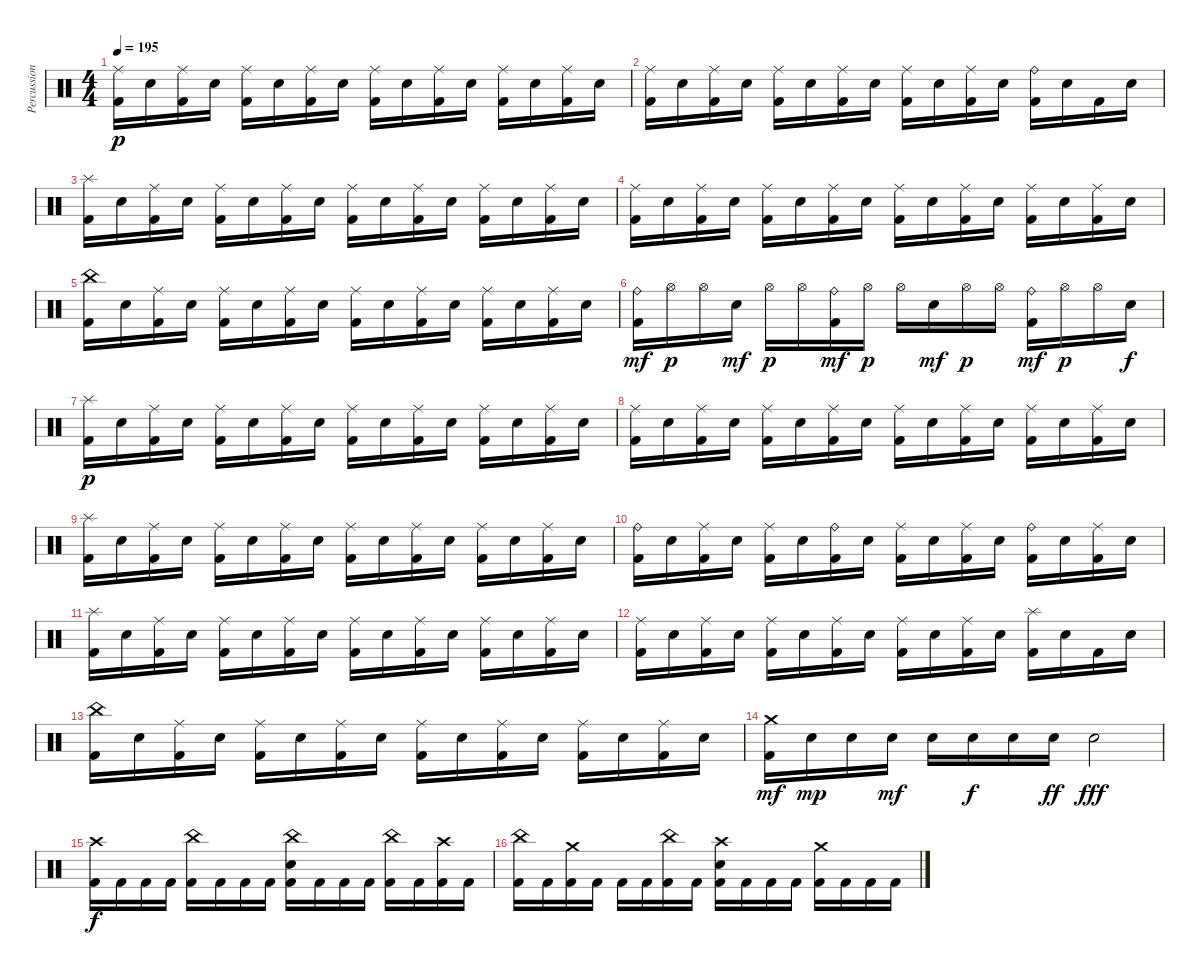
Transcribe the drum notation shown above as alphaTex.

\track ("Percussion" "Percussion") {instrument percussion}
\staff {score}
\articulation defaults
\ts (4 4)
\tempo 195
\clef neutral
\ks c
("Ride (middle)" "Kick (hit) 2").16{dy p} "Snare (hit) 2".16 ("Ride (middle)" "Kick (hit) 2").16 "Snare (hit) 2".16 ("Ride (middle)" "Kick (hit) 2").16 "Snare (hit) 2".16 ("Ride (middle)" "Kick (hit) 2").16 "Snare (hit) 2".16 ("Ride (middle)" "Kick (hit) 2").16 "Snare (hit) 2".16 ("Ride (middle)" "Kick (hit) 2").16 "Snare (hit) 2".16 ("Ride (middle)" "Kick (hit) 2").16 "Snare (hit) 2".16 ("Ride (middle)" "Kick (hit) 2").16 "Snare (hit) 2".16 |
("Ride (middle)" "Kick (hit) 2").16 "Snare (hit) 2".16 ("Ride (middle)" "Kick (hit) 2").16 "Snare (hit) 2".16 ("Ride (middle)" "Kick (hit) 2").16 "Snare (hit) 2".16 ("Ride (middle)" "Kick (hit) 2").16 "Snare (hit) 2".16 ("Ride (middle)" "Kick (hit) 2").16 "Snare (hit) 2".16 ("Ride (middle)" "Kick (hit) 2").16 "Snare (hit) 2".16 ("Ride (bell)" "Kick (hit) 2").16 "Snare (hit) 2".16 "Kick (hit) 2".16 "Snare (hit) 2".16 |
("Splash (hit)" "Kick (hit) 2").16 "Snare (hit) 2".16 ("Ride (middle)" "Kick (hit) 2").16 "Snare (hit) 2".16 ("Ride (middle)" "Kick (hit) 2").16 "Snare (hit) 2".16 ("Ride (middle)" "Kick (hit) 2").16 "Snare (hit) 2".16 ("Ride (middle)" "Kick (hit) 2").16 "Snare (hit) 2".16 ("Ride (middle)" "Kick (hit) 2").16 "Snare (hit) 2".16 ("Ride (middle)" "Kick (hit) 2").16 "Snare (hit) 2".16 ("Ride (middle)" "Kick (hit) 2").16 "Snare (hit) 2".16 |
("Ride (middle)" "Kick (hit) 2").16 "Snare (hit) 2".16 ("Ride (middle)" "Kick (hit) 2").16 "Snare (hit) 2".16 ("Ride (middle)" "Kick (hit) 2").16 "Snare (hit) 2".16 ("Ride (middle)" "Kick (hit) 2").16 "Snare (hit) 2".16 ("Ride (middle)" "Kick (hit) 2").16 "Snare (hit) 2".16 ("Ride (middle)" "Kick (hit) 2").16 "Snare (hit) 2".16 ("Ride (middle)" "Kick (hit) 2").16 "Snare (hit) 2".16 ("Ride (middle)" "Kick (hit) 2").16 "Snare (hit) 2".16 |
("China (hit)" "Kick (hit) 2").16 "Snare (hit) 2".16 ("Ride (middle)" "Kick (hit) 2").16 "Snare (hit) 2".16 ("Ride (middle)" "Kick (hit) 2").16 "Snare (hit) 2".16 ("Ride (middle)" "Kick (hit) 2").16 "Snare (hit) 2".16 ("Ride (middle)" "Kick (hit) 2").16 "Snare (hit) 2".16 ("Ride (middle)" "Kick (hit) 2").16 "Snare (hit) 2".16 ("Ride (middle)" "Kick (hit) 2").16 "Snare (hit) 2".16 ("Ride (middle)" "Kick (hit) 2").16 "Snare (hit) 2".16 |
("Ride (bell)" "Kick (hit) 2").16{dy mf} "Hi-Hat (open)".16{dy p} "Hi-Hat (open)".16 "Snare (hit) 2".16{dy mf} "Hi-Hat (open)".16{dy p} "Hi-Hat (open)".16 ("Ride (bell)" "Kick (hit) 2").16{dy mf} "Hi-Hat (open)".16{dy p} "Hi-Hat (open)".16 "Snare (hit) 2".16{dy mf} "Hi-Hat (open)".16{dy p} "Hi-Hat (open)".16 ("Ride (bell)" "Kick (hit) 2").16{dy mf} "Hi-Hat (open)".16{dy p} "Hi-Hat (open)".16 "Snare (hit) 2".16{dy f} |
("Splash (hit)" "Kick (hit) 2").16{dy p} "Snare (hit) 2".16 ("Ride (middle)" "Kick (hit) 2").16 "Snare (hit) 2".16 ("Ride (middle)" "Kick (hit) 2").16 "Snare (hit) 2".16 ("Ride (middle)" "Kick (hit) 2").16 "Snare (hit) 2".16 ("Ride (middle)" "Kick (hit) 2").16 "Snare (hit) 2".16 ("Ride (middle)" "Kick (hit) 2").16 "Snare (hit) 2".16 ("Ride (middle)" "Kick (hit) 2").16 "Snare (hit) 2".16 ("Ride (middle)" "Kick (hit) 2").16 "Snare (hit) 2".16 |
("Ride (middle)" "Kick (hit) 2").16 "Snare (hit) 2".16 ("Ride (middle)" "Kick (hit) 2").16 "Snare (hit) 2".16 ("Ride (middle)" "Kick (hit) 2").16 "Snare (hit) 2".16 ("Ride (middle)" "Kick (hit) 2").16 "Snare (hit) 2".16 ("Ride (middle)" "Kick (hit) 2").16 "Snare (hit) 2".16 ("Ride (middle)" "Kick (hit) 2").16 "Snare (hit) 2".16 ("Ride (middle)" "Kick (hit) 2").16 "Snare (hit) 2".16 ("Ride (middle)" "Kick (hit) 2").16 "Snare (hit) 2".16 |
("Splash (hit)" "Kick (hit) 2").16 "Snare (hit) 2".16 ("Ride (middle)" "Kick (hit) 2").16 "Snare (hit) 2".16 ("Ride (middle)" "Kick (hit) 2").16 "Snare (hit) 2".16 ("Ride (middle)" "Kick (hit) 2").16 "Snare (hit) 2".16 ("Ride (middle)" "Kick (hit) 2").16 "Snare (hit) 2".16 ("Ride (middle)" "Kick (hit) 2").16 "Snare (hit) 2".16 ("Ride (middle)" "Kick (hit) 2").16 "Snare (hit) 2".16 ("Ride (middle)" "Kick (hit) 2").16 "Snare (hit) 2".16 |
("Ride (bell)" "Kick (hit) 2").16 "Snare (hit) 2".16 ("Ride (middle)" "Kick (hit) 2").16 "Snare (hit) 2".16 ("Ride (middle)" "Kick (hit) 2").16 "Snare (hit) 2".16 ("Ride (bell)" "Kick (hit) 2").16 "Snare (hit) 2".16 ("Ride (middle)" "Kick (hit) 2").16 "Snare (hit) 2".16 ("Ride (middle)" "Kick (hit) 2").16 "Snare (hit) 2".16 ("Ride (bell)" "Kick (hit) 2").16 "Snare (hit) 2".16 ("Ride (middle)" "Kick (hit) 2").16 "Snare (hit) 2".16 |
("Splash (hit)" "Kick (hit) 2").16 "Snare (hit) 2".16 ("Ride (middle)" "Kick (hit) 2").16 "Snare (hit) 2".16 ("Ride (middle)" "Kick (hit) 2").16 "Snare (hit) 2".16 ("Ride (middle)" "Kick (hit) 2").16 "Snare (hit) 2".16 ("Ride (middle)" "Kick (hit) 2").16 "Snare (hit) 2".16 ("Ride (middle)" "Kick (hit) 2").16 "Snare (hit) 2".16 ("Ride (middle)" "Kick (hit) 2").16 "Snare (hit) 2".16 ("Ride (middle)" "Kick (hit) 2").16 "Snare (hit) 2".16 |
("Ride (middle)" "Kick (hit) 2").16 "Snare (hit) 2".16 ("Ride (middle)" "Kick (hit) 2").16 "Snare (hit) 2".16 ("Ride (middle)" "Kick (hit) 2").16 "Snare (hit) 2".16 ("Ride (middle)" "Kick (hit) 2").16 "Snare (hit) 2".16 ("Ride (middle)" "Kick (hit) 2").16 "Snare (hit) 2".16 ("Ride (middle)" "Kick (hit) 2").16 "Snare (hit) 2".16 ("Splash (hit)" "Kick (hit) 2").16 "Snare (hit) 2".16 "Kick (hit) 2".16 "Snare (hit) 2".16 |
("China (hit)" "Kick (hit) 2").16 "Snare (hit) 2".16 ("Ride (middle)" "Kick (hit) 2").16 "Snare (hit) 2".16 ("Ride (middle)" "Kick (hit) 2").16 "Snare (hit) 2".16 ("Ride (middle)" "Kick (hit) 2").16 "Snare (hit) 2".16 ("Ride (middle)" "Kick (hit) 2").16 "Snare (hit) 2".16 ("Ride (middle)" "Kick (hit) 2").16 "Snare (hit) 2".16 ("Ride (middle)" "Kick (hit) 2").16 "Snare (hit) 2".16 ("Ride (middle)" "Kick (hit) 2").16 "Snare (hit) 2".16 |
("Crash medium (hit)" "Kick (hit) 2").16{dy mf} "Snare (hit) 2".16{dy mp} "Snare (hit) 2".16 "Snare (hit) 2".16{dy mf} "Snare (hit) 2".16 "Snare (hit) 2".16{dy f} "Snare (hit) 2".16 "Snare (hit) 2".16{dy ff} "Snare (hit) 2".2{dy fff} |
("Crash high (hit)" "Kick (hit) 2").16{dy f} "Kick (hit) 2".16 "Kick (hit) 2".16 "Kick (hit) 2".16 ("China (hit)" "Kick (hit) 2").16 "Kick (hit) 2".16 "Kick (hit) 2".16 "Kick (hit) 2".16 ("China (hit)" "Snare (hit) 2" "Kick (hit) 2").16 "Kick (hit) 2".16 "Kick (hit) 2".16 "Kick (hit) 2".16 ("China (hit)" "Kick (hit) 2").16 "Kick (hit) 2".16 ("Crash high (hit)" "Kick (hit) 2").16 "Kick (hit) 2".16 |
("China (hit)" "Kick (hit) 2").16 "Kick (hit) 2".16 ("Crash medium (hit)" "Kick (hit) 2").16 "Kick (hit) 2".16 "Kick (hit) 2".16 "Kick (hit) 2".16 ("China (hit)" "Kick (hit) 2").16 "Kick (hit) 2".16 ("Crash high (hit)" "Snare (hit) 2" "Kick (hit) 2").16 "Kick (hit) 2".16 "Kick (hit) 2".16 "Kick (hit) 2".16 ("Crash medium (hit)" "Kick (hit) 2").16 "Kick (hit) 2".16 "Kick (hit) 2".16 "Kick (hit) 2".16
